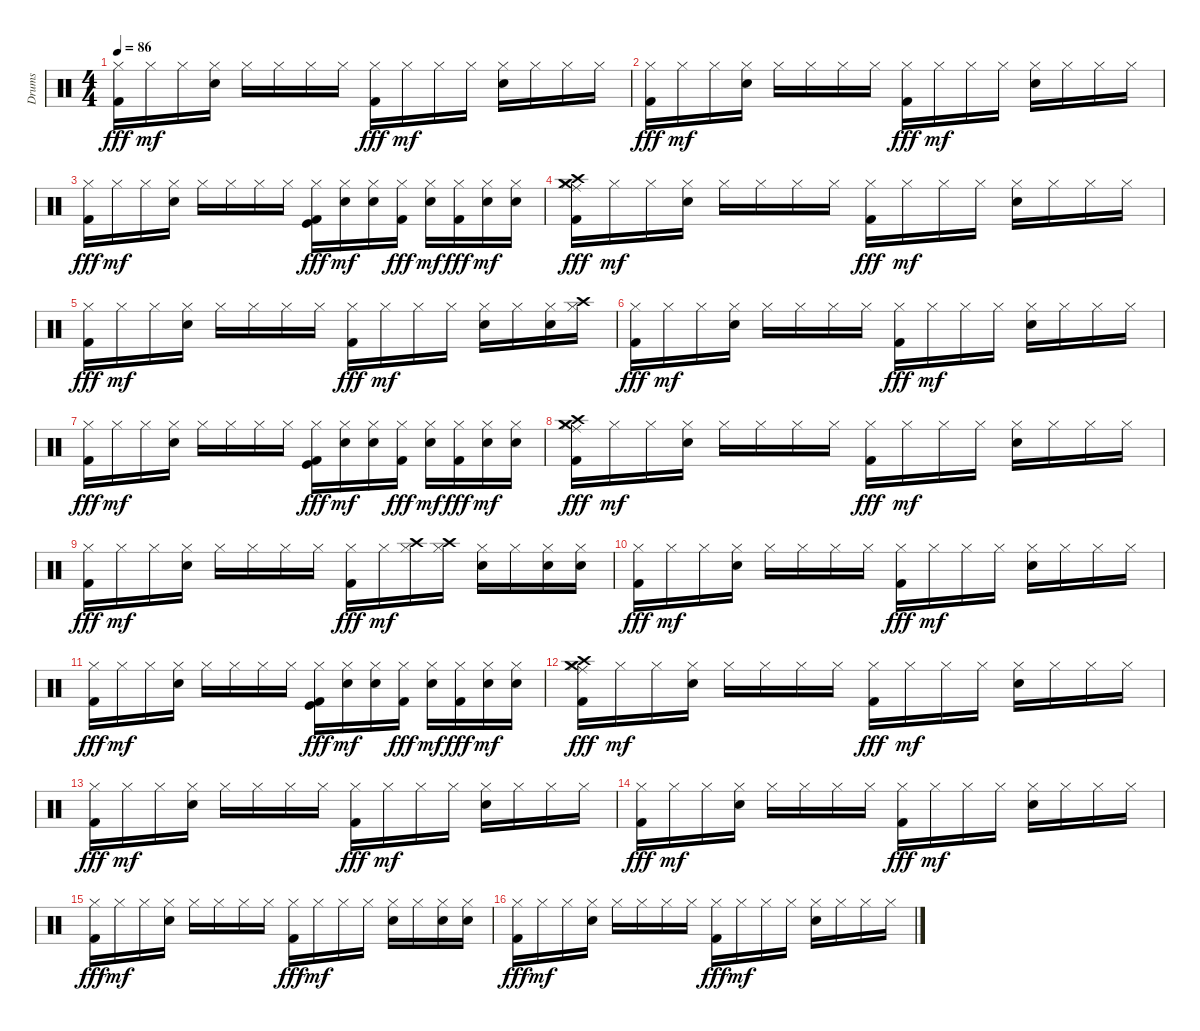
\track ("Drums" "Drums") {instrument percussion}
\staff {score}
\articulation defaults
\ts (4 4)
\tempo 86
\clef neutral
\ks c
("Hi-Hat (closed)" "Kick (hit) 2").16{dy fff} "Hi-Hat (closed)".16{dy mf} "Hi-Hat (closed)".16 ("Hi-Hat (closed)" "Snare (hit) 2").16 "Hi-Hat (closed)".16 "Hi-Hat (closed)".16 "Hi-Hat (closed)".16 "Hi-Hat (closed)".16 ("Hi-Hat (closed)" "Kick (hit) 2").16{dy fff} "Hi-Hat (closed)".16{dy mf} "Hi-Hat (closed)".16 "Hi-Hat (closed)".16 ("Hi-Hat (closed)" "Snare (hit) 2").16 "Hi-Hat (closed)".16 "Hi-Hat (closed)".16 "Hi-Hat (closed)".16 |
("Hi-Hat (closed)" "Kick (hit) 2").16{dy fff} "Hi-Hat (closed)".16{dy mf} "Hi-Hat (closed)".16 ("Hi-Hat (closed)" "Snare (hit) 2").16 "Hi-Hat (closed)".16 "Hi-Hat (closed)".16 "Hi-Hat (closed)".16 "Hi-Hat (closed)".16 ("Hi-Hat (closed)" "Kick (hit) 2").16{dy fff} "Hi-Hat (closed)".16{dy mf} "Hi-Hat (closed)".16 "Hi-Hat (closed)".16 ("Hi-Hat (closed)" "Snare (hit) 2").16 "Hi-Hat (closed)".16 "Hi-Hat (closed)".16 "Hi-Hat (closed)".16 |
("Hi-Hat (closed)" "Kick (hit) 2").16{dy fff} "Hi-Hat (closed)".16{dy mf} "Hi-Hat (closed)".16 ("Hi-Hat (closed)" "Snare (hit) 2").16 "Hi-Hat (closed)".16 "Hi-Hat (closed)".16 "Hi-Hat (closed)".16 "Hi-Hat (closed)".16 ("Hi-Hat (closed)" "Kick (hit)" "Kick (hit) 2").16{dy fff} ("Hi-Hat (closed)" "Snare (hit) 2").16{dy mf} ("Hi-Hat (closed)" "Snare (hit) 2").16 ("Hi-Hat (closed)" "Kick (hit) 2").16{dy fff} ("Hi-Hat (closed)" "Snare (hit) 2").16{dy mf} ("Hi-Hat (closed)" "Kick (hit) 2").16{dy fff} ("Hi-Hat (closed)" "Snare (hit) 2").16{dy mf} ("Hi-Hat (closed)" "Snare (hit) 2").16 |
("Hi-Hat (closed)" "Crash high (hit)" "Ride (middle)" "Crash medium (hit)" "Kick (hit) 2").16{dy fff} "Hi-Hat (closed)".16{dy mf} "Hi-Hat (closed)".16 ("Hi-Hat (closed)" "Snare (hit) 2").16 "Hi-Hat (closed)".16 "Hi-Hat (closed)".16 "Hi-Hat (closed)".16 "Hi-Hat (closed)".16 ("Hi-Hat (closed)" "Kick (hit) 2").16{dy fff} "Hi-Hat (closed)".16{dy mf} "Hi-Hat (closed)".16 "Hi-Hat (closed)".16 ("Hi-Hat (closed)" "Snare (hit) 2").16 "Hi-Hat (closed)".16 "Hi-Hat (closed)".16 "Hi-Hat (closed)".16 |
("Hi-Hat (closed)" "Kick (hit) 2").16{dy fff} "Hi-Hat (closed)".16{dy mf} "Hi-Hat (closed)".16 ("Hi-Hat (closed)" "Snare (hit) 2").16 "Hi-Hat (closed)".16 "Hi-Hat (closed)".16 "Hi-Hat (closed)".16 "Hi-Hat (closed)".16 ("Hi-Hat (closed)" "Kick (hit) 2").16{dy fff} "Hi-Hat (closed)".16{dy mf} "Hi-Hat (closed)".16 "Hi-Hat (closed)".16 ("Hi-Hat (closed)" "Snare (hit) 2").16 "Hi-Hat (closed)".16 ("Hi-Hat (closed)" "Snare (hit) 2").16 ("Hi-Hat (closed)" "Crash high (hit)").16 |
("Hi-Hat (closed)" "Kick (hit) 2").16{dy fff} "Hi-Hat (closed)".16{dy mf} "Hi-Hat (closed)".16 ("Hi-Hat (closed)" "Snare (hit) 2").16 "Hi-Hat (closed)".16 "Hi-Hat (closed)".16 "Hi-Hat (closed)".16 "Hi-Hat (closed)".16 ("Hi-Hat (closed)" "Kick (hit) 2").16{dy fff} "Hi-Hat (closed)".16{dy mf} "Hi-Hat (closed)".16 "Hi-Hat (closed)".16 ("Hi-Hat (closed)" "Snare (hit) 2").16 "Hi-Hat (closed)".16 "Hi-Hat (closed)".16 "Hi-Hat (closed)".16 |
("Hi-Hat (closed)" "Kick (hit) 2").16{dy fff} "Hi-Hat (closed)".16{dy mf} "Hi-Hat (closed)".16 ("Hi-Hat (closed)" "Snare (hit) 2").16 "Hi-Hat (closed)".16 "Hi-Hat (closed)".16 "Hi-Hat (closed)".16 "Hi-Hat (closed)".16 ("Hi-Hat (closed)" "Kick (hit)" "Kick (hit) 2").16{dy fff} ("Hi-Hat (closed)" "Snare (hit) 2").16{dy mf} ("Hi-Hat (closed)" "Snare (hit) 2").16 ("Hi-Hat (closed)" "Kick (hit) 2").16{dy fff} ("Hi-Hat (closed)" "Snare (hit) 2").16{dy mf} ("Hi-Hat (closed)" "Kick (hit) 2").16{dy fff} ("Hi-Hat (closed)" "Snare (hit) 2").16{dy mf} ("Hi-Hat (closed)" "Snare (hit) 2").16 |
("Hi-Hat (closed)" "Crash high (hit)" "Ride (middle)" "Crash medium (hit)" "Kick (hit) 2").16{dy fff} "Hi-Hat (closed)".16{dy mf} "Hi-Hat (closed)".16 ("Hi-Hat (closed)" "Snare (hit) 2").16 "Hi-Hat (closed)".16 "Hi-Hat (closed)".16 "Hi-Hat (closed)".16 "Hi-Hat (closed)".16 ("Hi-Hat (closed)" "Kick (hit) 2").16{dy fff} "Hi-Hat (closed)".16{dy mf} "Hi-Hat (closed)".16 "Hi-Hat (closed)".16 ("Hi-Hat (closed)" "Snare (hit) 2").16 "Hi-Hat (closed)".16 "Hi-Hat (closed)".16 "Hi-Hat (closed)".16 |
("Hi-Hat (closed)" "Kick (hit) 2").16{dy fff} "Hi-Hat (closed)".16{dy mf} "Hi-Hat (closed)".16 ("Hi-Hat (closed)" "Snare (hit) 2").16 "Hi-Hat (closed)".16 "Hi-Hat (closed)".16 "Hi-Hat (closed)".16 "Hi-Hat (closed)".16 ("Hi-Hat (closed)" "Kick (hit) 2").16{dy fff} "Hi-Hat (closed)".16{dy mf} ("Hi-Hat (closed)" "Crash high (hit)").16 ("Hi-Hat (closed)" "Crash high (hit)").16 ("Hi-Hat (closed)" "Snare (hit) 2").16 "Hi-Hat (closed)".16 ("Hi-Hat (closed)" "Snare (hit) 2").16 ("Hi-Hat (closed)" "Snare (hit) 2").16 |
("Hi-Hat (closed)" "Kick (hit) 2").16{dy fff} "Hi-Hat (closed)".16{dy mf} "Hi-Hat (closed)".16 ("Hi-Hat (closed)" "Snare (hit) 2").16 "Hi-Hat (closed)".16 "Hi-Hat (closed)".16 "Hi-Hat (closed)".16 "Hi-Hat (closed)".16 ("Hi-Hat (closed)" "Kick (hit) 2").16{dy fff} "Hi-Hat (closed)".16{dy mf} "Hi-Hat (closed)".16 "Hi-Hat (closed)".16 ("Hi-Hat (closed)" "Snare (hit) 2").16 "Hi-Hat (closed)".16 "Hi-Hat (closed)".16 "Hi-Hat (closed)".16 |
("Hi-Hat (closed)" "Kick (hit) 2").16{dy fff} "Hi-Hat (closed)".16{dy mf} "Hi-Hat (closed)".16 ("Hi-Hat (closed)" "Snare (hit) 2").16 "Hi-Hat (closed)".16 "Hi-Hat (closed)".16 "Hi-Hat (closed)".16 "Hi-Hat (closed)".16 ("Hi-Hat (closed)" "Kick (hit)" "Kick (hit) 2").16{dy fff} ("Hi-Hat (closed)" "Snare (hit) 2").16{dy mf} ("Hi-Hat (closed)" "Snare (hit) 2").16 ("Hi-Hat (closed)" "Kick (hit) 2").16{dy fff} ("Hi-Hat (closed)" "Snare (hit) 2").16{dy mf} ("Hi-Hat (closed)" "Kick (hit) 2").16{dy fff} ("Hi-Hat (closed)" "Snare (hit) 2").16{dy mf} ("Hi-Hat (closed)" "Snare (hit) 2").16 |
("Hi-Hat (closed)" "Crash high (hit)" "Ride (middle)" "Crash medium (hit)" "Kick (hit) 2").16{dy fff} "Hi-Hat (closed)".16{dy mf} "Hi-Hat (closed)".16 ("Hi-Hat (closed)" "Snare (hit) 2").16 "Hi-Hat (closed)".16 "Hi-Hat (closed)".16 "Hi-Hat (closed)".16 "Hi-Hat (closed)".16 ("Hi-Hat (closed)" "Kick (hit) 2").16{dy fff} "Hi-Hat (closed)".16{dy mf} "Hi-Hat (closed)".16 "Hi-Hat (closed)".16 ("Hi-Hat (closed)" "Snare (hit) 2").16 "Hi-Hat (closed)".16 "Hi-Hat (closed)".16 "Hi-Hat (closed)".16 |
("Hi-Hat (closed)" "Kick (hit) 2").16{dy fff} "Hi-Hat (closed)".16{dy mf} "Hi-Hat (closed)".16 ("Hi-Hat (closed)" "Snare (hit) 2").16 "Hi-Hat (closed)".16 "Hi-Hat (closed)".16 "Hi-Hat (closed)".16 "Hi-Hat (closed)".16 ("Hi-Hat (closed)" "Kick (hit) 2").16{dy fff} "Hi-Hat (closed)".16{dy mf} "Hi-Hat (closed)".16 "Hi-Hat (closed)".16 ("Hi-Hat (closed)" "Snare (hit) 2").16 "Hi-Hat (closed)".16 "Hi-Hat (closed)".16 "Hi-Hat (closed)".16 |
("Hi-Hat (closed)" "Kick (hit) 2").16{dy fff} "Hi-Hat (closed)".16{dy mf} "Hi-Hat (closed)".16 ("Hi-Hat (closed)" "Snare (hit) 2").16 "Hi-Hat (closed)".16 "Hi-Hat (closed)".16 "Hi-Hat (closed)".16 "Hi-Hat (closed)".16 ("Hi-Hat (closed)" "Kick (hit) 2").16{dy fff} "Hi-Hat (closed)".16{dy mf} "Hi-Hat (closed)".16 "Hi-Hat (closed)".16 ("Hi-Hat (closed)" "Snare (hit) 2").16 "Hi-Hat (closed)".16 "Hi-Hat (closed)".16 "Hi-Hat (closed)".16 |
("Hi-Hat (closed)" "Kick (hit) 2").16{dy fff} "Hi-Hat (closed)".16{dy mf} "Hi-Hat (closed)".16 ("Hi-Hat (closed)" "Snare (hit) 2").16 "Hi-Hat (closed)".16 "Hi-Hat (closed)".16 "Hi-Hat (closed)".16 "Hi-Hat (closed)".16 ("Hi-Hat (closed)" "Kick (hit) 2").16{dy fff} "Hi-Hat (closed)".16{dy mf} "Hi-Hat (closed)".16 "Hi-Hat (closed)".16 ("Hi-Hat (closed)" "Snare (hit) 2").16 "Hi-Hat (closed)".16 ("Hi-Hat (closed)" "Snare (hit) 2").16 ("Hi-Hat (closed)" "Snare (hit) 2").16 |
("Hi-Hat (closed)" "Kick (hit) 2").16{dy fff} "Hi-Hat (closed)".16{dy mf} "Hi-Hat (closed)".16 ("Hi-Hat (closed)" "Snare (hit) 2").16 "Hi-Hat (closed)".16 "Hi-Hat (closed)".16 "Hi-Hat (closed)".16 "Hi-Hat (closed)".16 ("Hi-Hat (closed)" "Kick (hit) 2").16{dy fff} "Hi-Hat (closed)".16{dy mf} "Hi-Hat (closed)".16 "Hi-Hat (closed)".16 ("Hi-Hat (closed)" "Snare (hit) 2").16 "Hi-Hat (closed)".16 "Hi-Hat (closed)".16 "Hi-Hat (closed)".16
